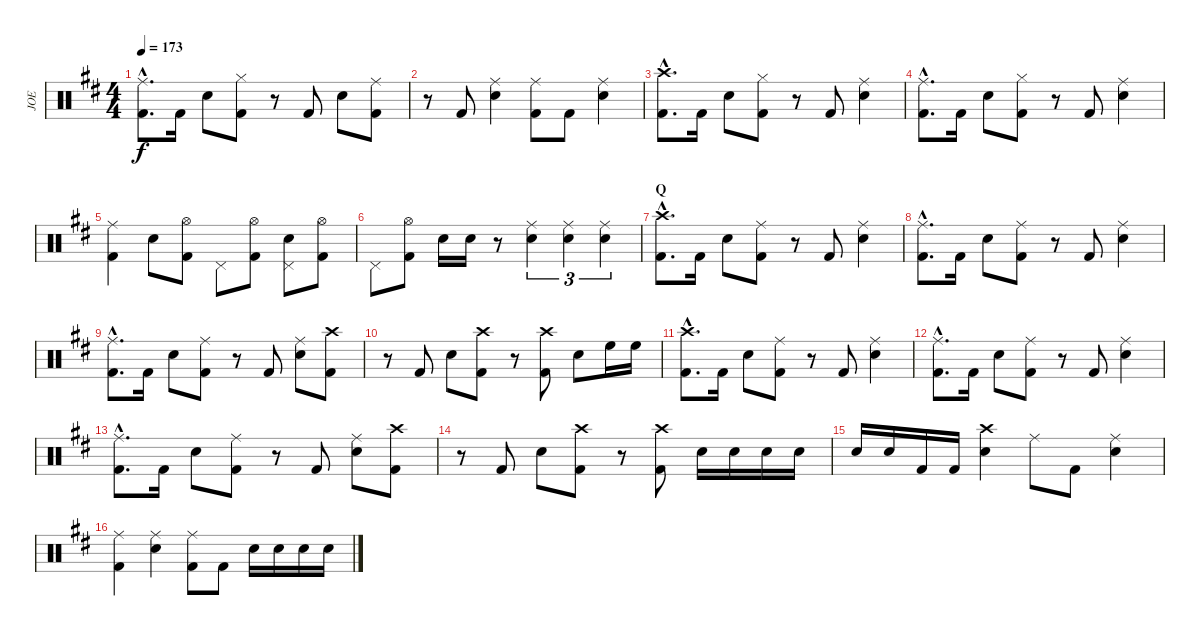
\track ("JOE" "JOE") {instrument percussion}
\staff {score}
\articulation defaults
\ts (4 4)
\tempo 173
\clef neutral
\ks bminor
("Ride (middle)"{hac} "Kick (hit) 2"{hac}).8{d dy f} "Kick (hit) 2".16 "Snare (hit) 2".8 ("Hi-Hat (closed)" "Kick (hit) 2").8 r.8 "Kick (hit) 2".8 "Snare (hit) 2".8 ("Ride (middle)" "Kick (hit) 2").8 |
r.8 "Kick (hit) 2".8 ("Ride (middle)" "Snare (hit) 2").4 ("Ride (middle)" "Kick (hit) 2").8 "Kick (hit) 2".8 ("Ride (middle)" "Snare (hit) 2").4 |
("Crash high (hit)"{hac} "Kick (hit) 2"{hac}).8{d} "Kick (hit) 2".16 "Snare (hit) 2".8 ("Hi-Hat (closed)" "Kick (hit) 2").8 r.8 "Kick (hit) 2".8 ("Ride (middle)" "Snare (hit) 2").4 |
("Ride (middle)"{hac} "Kick (hit) 2"{hac}).8{d} "Kick (hit) 2".16 "Snare (hit) 2".8 ("Hi-Hat (closed)" "Kick (hit) 2").8 r.8 "Kick (hit) 2".8 ("Ride (middle)" "Snare (hit) 2").4 |
("Ride (middle)" "Kick (hit) 2").4 "Snare (hit) 2".8 ("Hi-Hat (open)" "Kick (hit) 2").8 "Pedal Hi-Hat (hit)".8 ("Hi-Hat (open)" "Kick (hit) 2").8 ("Pedal Hi-Hat (hit)" "Snare (hit) 2").8 ("Hi-Hat (open)" "Kick (hit) 2").8 |
"Pedal Hi-Hat (hit)".8 ("Hi-Hat (open)" "Kick (hit) 2").8 "Snare (hit) 2".16 "Snare (hit) 2".16 r.8 ("Ride (middle)" "Snare (hit) 2").4{tu (3 2)} ("Ride (middle)" "Snare (hit) 2").4{tu (3 2)} ("Ride (middle)" "Snare (hit) 2").4{tu (3 2)} |
\section ("" "Q")
("Crash high (hit)"{hac} "Kick (hit) 2"{hac}).8{d} "Kick (hit) 2".16 "Snare (hit) 2".8 ("Ride (middle)" "Kick (hit) 2").8 r.8 "Kick (hit) 2".8 ("Ride (middle)" "Snare (hit) 2").4 |
("Ride (middle)"{hac} "Kick (hit) 2"{hac}).8{d} "Kick (hit) 2".16 "Snare (hit) 2".8 ("Ride (middle)" "Kick (hit) 2").8 r.8 "Kick (hit) 2".8 ("Ride (middle)" "Snare (hit) 2").4 |
("Ride (middle)"{hac} "Kick (hit) 2"{hac}).8{d} "Kick (hit) 2".16 "Snare (hit) 2".8 ("Ride (middle)" "Kick (hit) 2").8 r.8 "Kick (hit) 2".8 ("Ride (middle)" "Snare (hit) 2").8 ("Crash high (hit)" "Kick (hit) 2").8 |
r.8 "Kick (hit) 2".8 "Snare (hit) 2".8 ("Crash high (hit)" "Kick (hit) 2").8 r.8 ("Crash high (hit)" "Kick (hit) 2").8 "Snare (hit) 2".8 "High Floor Tom (hit)".16 "High Floor Tom (hit)".16 |
("Crash high (hit)"{hac} "Kick (hit) 2"{hac}).8{d} "Kick (hit) 2".16 "Snare (hit) 2".8 ("Ride (middle)" "Kick (hit) 2").8 r.8 "Kick (hit) 2".8 ("Ride (middle)" "Snare (hit) 2").4 |
("Ride (middle)"{hac} "Kick (hit) 2"{hac}).8{d} "Kick (hit) 2".16 "Snare (hit) 2".8 ("Ride (middle)" "Kick (hit) 2").8 r.8 "Kick (hit) 2".8 ("Ride (middle)" "Snare (hit) 2").4 |
("Ride (middle)"{hac} "Kick (hit) 2"{hac}).8{d} "Kick (hit) 2".16 "Snare (hit) 2".8 ("Ride (middle)" "Kick (hit) 2").8 r.8 "Kick (hit) 2".8 ("Ride (middle)" "Snare (hit) 2").8 ("Crash high (hit)" "Kick (hit) 2").8 |
r.8 "Kick (hit) 2".8 "Snare (hit) 2".8 ("Crash high (hit)" "Kick (hit) 2").8 r.8 ("Crash high (hit)" "Kick (hit) 2").8 "Snare (hit) 2".16 "Snare (hit) 2".16 "Snare (hit) 2".16 "Snare (hit) 2".16 |
"Snare (hit) 2".16 "Snare (hit) 2".16 "Kick (hit) 2".16 "Kick (hit) 2".16 ("Crash high (hit)" "Snare (hit) 2").4 "Ride (middle)".8 "Kick (hit) 2".8 ("Ride (middle)" "Snare (hit) 2").4 |
("Ride (middle)" "Kick (hit) 2").4 ("Ride (middle)" "Snare (hit) 2").4 ("Ride (middle)" "Kick (hit) 2").8 "Kick (hit) 2".8 "Snare (hit) 2".16 "Snare (hit) 2".16 "Snare (hit) 2".16 "Snare (hit) 2".16
